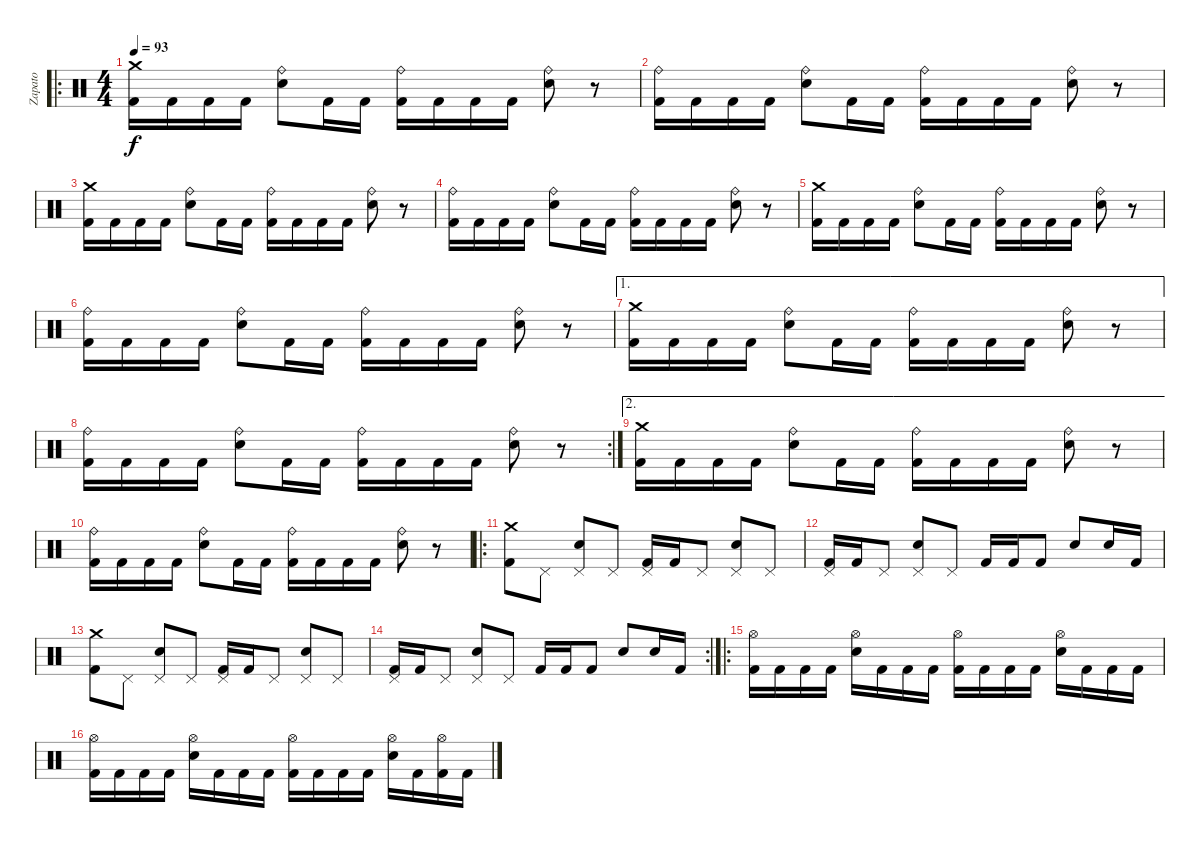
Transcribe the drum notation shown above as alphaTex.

\track ("Zapato" "Zapato") {instrument percussion}
\staff {score}
\articulation defaults
\ro
\ts (4 4)
\tempo 93
\clef neutral
\ks c
("Kick (hit) 2" "Crash medium (hit)").16{dy f} "Kick (hit) 2".16 "Kick (hit) 2".16 "Kick (hit) 2".16 ("Electric Snare (hit)" "Ride (bell)").8 "Kick (hit) 2".16 "Kick (hit) 2".16 ("Kick (hit) 2" "Ride (bell)").16 "Kick (hit) 2".16 "Kick (hit) 2".16 "Kick (hit) 2".16 ("Electric Snare (hit)" "Ride (bell)").8 r.8 |
("Kick (hit) 2" "Ride (bell)").16 "Kick (hit) 2".16 "Kick (hit) 2".16 "Kick (hit) 2".16 ("Electric Snare (hit)" "Ride (bell)").8 "Kick (hit) 2".16 "Kick (hit) 2".16 ("Kick (hit) 2" "Ride (bell)").16 "Kick (hit) 2".16 "Kick (hit) 2".16 "Kick (hit) 2".16 ("Electric Snare (hit)" "Ride (bell)").8 r.8 |
("Kick (hit) 2" "Crash medium (hit)").16 "Kick (hit) 2".16 "Kick (hit) 2".16 "Kick (hit) 2".16 ("Electric Snare (hit)" "Ride (bell)").8 "Kick (hit) 2".16 "Kick (hit) 2".16 ("Kick (hit) 2" "Ride (bell)").16 "Kick (hit) 2".16 "Kick (hit) 2".16 "Kick (hit) 2".16 ("Electric Snare (hit)" "Ride (bell)").8 r.8 |
("Kick (hit) 2" "Ride (bell)").16 "Kick (hit) 2".16 "Kick (hit) 2".16 "Kick (hit) 2".16 ("Electric Snare (hit)" "Ride (bell)").8 "Kick (hit) 2".16 "Kick (hit) 2".16 ("Kick (hit) 2" "Ride (bell)").16 "Kick (hit) 2".16 "Kick (hit) 2".16 "Kick (hit) 2".16 ("Electric Snare (hit)" "Ride (bell)").8 r.8 |
("Kick (hit) 2" "Crash medium (hit)").16 "Kick (hit) 2".16 "Kick (hit) 2".16 "Kick (hit) 2".16 ("Electric Snare (hit)" "Ride (bell)").8 "Kick (hit) 2".16 "Kick (hit) 2".16 ("Kick (hit) 2" "Ride (bell)").16 "Kick (hit) 2".16 "Kick (hit) 2".16 "Kick (hit) 2".16 ("Electric Snare (hit)" "Ride (bell)").8 r.8 |
("Kick (hit) 2" "Ride (bell)").16 "Kick (hit) 2".16 "Kick (hit) 2".16 "Kick (hit) 2".16 ("Electric Snare (hit)" "Ride (bell)").8 "Kick (hit) 2".16 "Kick (hit) 2".16 ("Kick (hit) 2" "Ride (bell)").16 "Kick (hit) 2".16 "Kick (hit) 2".16 "Kick (hit) 2".16 ("Electric Snare (hit)" "Ride (bell)").8 r.8 |
\ae 1
("Kick (hit) 2" "Crash medium (hit)").16 "Kick (hit) 2".16 "Kick (hit) 2".16 "Kick (hit) 2".16 ("Electric Snare (hit)" "Ride (bell)").8 "Kick (hit) 2".16 "Kick (hit) 2".16 ("Kick (hit) 2" "Ride (bell)").16 "Kick (hit) 2".16 "Kick (hit) 2".16 "Kick (hit) 2".16 ("Electric Snare (hit)" "Ride (bell)").8 r.8 |
\rc 2
("Kick (hit) 2" "Ride (bell)").16 "Kick (hit) 2".16 "Kick (hit) 2".16 "Kick (hit) 2".16 ("Electric Snare (hit)" "Ride (bell)").8 "Kick (hit) 2".16 "Kick (hit) 2".16 ("Kick (hit) 2" "Ride (bell)").16 "Kick (hit) 2".16 "Kick (hit) 2".16 "Kick (hit) 2".16 ("Electric Snare (hit)" "Ride (bell)").8 r.8 |
\ae 2
("Kick (hit) 2" "Crash medium (hit)").16 "Kick (hit) 2".16 "Kick (hit) 2".16 "Kick (hit) 2".16 ("Electric Snare (hit)" "Ride (bell)").8 "Kick (hit) 2".16 "Kick (hit) 2".16 ("Kick (hit) 2" "Ride (bell)").16 "Kick (hit) 2".16 "Kick (hit) 2".16 "Kick (hit) 2".16 ("Electric Snare (hit)" "Ride (bell)").8 r.8 |
("Kick (hit) 2" "Ride (bell)").16 "Kick (hit) 2".16 "Kick (hit) 2".16 "Kick (hit) 2".16 ("Electric Snare (hit)" "Ride (bell)").8 "Kick (hit) 2".16 "Kick (hit) 2".16 ("Kick (hit) 2" "Ride (bell)").16 "Kick (hit) 2".16 "Kick (hit) 2".16 "Kick (hit) 2".16 ("Electric Snare (hit)" "Ride (bell)").8 r.8 |
\ro
("Kick (hit) 2" "Crash medium (hit)").8 "Pedal Hi-Hat (hit)".8 ("Electric Snare (hit)" "Pedal Hi-Hat (hit)").8 "Pedal Hi-Hat (hit)".8 ("Kick (hit) 2" "Pedal Hi-Hat (hit)").16 "Kick (hit) 2".16 "Pedal Hi-Hat (hit)".8 ("Electric Snare (hit)" "Pedal Hi-Hat (hit)").8 "Pedal Hi-Hat (hit)".8 |
("Kick (hit) 2" "Pedal Hi-Hat (hit)").16 "Kick (hit) 2".16 "Pedal Hi-Hat (hit)".8 ("Electric Snare (hit)" "Pedal Hi-Hat (hit)").8 "Pedal Hi-Hat (hit)".8 "Kick (hit) 2".16 "Kick (hit) 2".16 "Kick (hit) 2".8 "Electric Snare (hit)".8 "Electric Snare (hit)".16 "Kick (hit) 2".16 |
("Kick (hit) 2" "Crash medium (hit)").8 "Pedal Hi-Hat (hit)".8 ("Electric Snare (hit)" "Pedal Hi-Hat (hit)").8 "Pedal Hi-Hat (hit)".8 ("Kick (hit) 2" "Pedal Hi-Hat (hit)").16 "Kick (hit) 2".16 "Pedal Hi-Hat (hit)".8 ("Electric Snare (hit)" "Pedal Hi-Hat (hit)").8 "Pedal Hi-Hat (hit)".8 |
\rc 2
("Kick (hit) 2" "Pedal Hi-Hat (hit)").16 "Kick (hit) 2".16 "Pedal Hi-Hat (hit)".8 ("Electric Snare (hit)" "Pedal Hi-Hat (hit)").8 "Pedal Hi-Hat (hit)".8 "Kick (hit) 2".16 "Kick (hit) 2".16 "Kick (hit) 2".8 "Electric Snare (hit)".8 "Electric Snare (hit)".16 "Kick (hit) 2".16 |
\ro
("Kick (hit) 2" "Hi-Hat (open)").16 "Kick (hit) 2".16 "Kick (hit) 2".16 "Kick (hit) 2".16 ("Electric Snare (hit)" "Hi-Hat (open)").16 "Kick (hit) 2".16 "Kick (hit) 2".16 "Kick (hit) 2".16 ("Kick (hit) 2" "Hi-Hat (open)").16 "Kick (hit) 2".16 "Kick (hit) 2".16 "Kick (hit) 2".16 ("Electric Snare (hit)" "Hi-Hat (open)").16 "Kick (hit) 2".16 "Kick (hit) 2".16 "Kick (hit) 2".16 |
("Kick (hit) 2" "Hi-Hat (open)").16 "Kick (hit) 2".16 "Kick (hit) 2".16 "Kick (hit) 2".16 ("Electric Snare (hit)" "Hi-Hat (open)").16 "Kick (hit) 2".16 "Kick (hit) 2".16 "Kick (hit) 2".16 ("Kick (hit) 2" "Hi-Hat (open)").16 "Kick (hit) 2".16 "Kick (hit) 2".16 "Kick (hit) 2".16 ("Electric Snare (hit)" "Hi-Hat (open)").16 "Kick (hit) 2".16 ("Kick (hit) 2" "Hi-Hat (open)").16 "Kick (hit) 2".16
